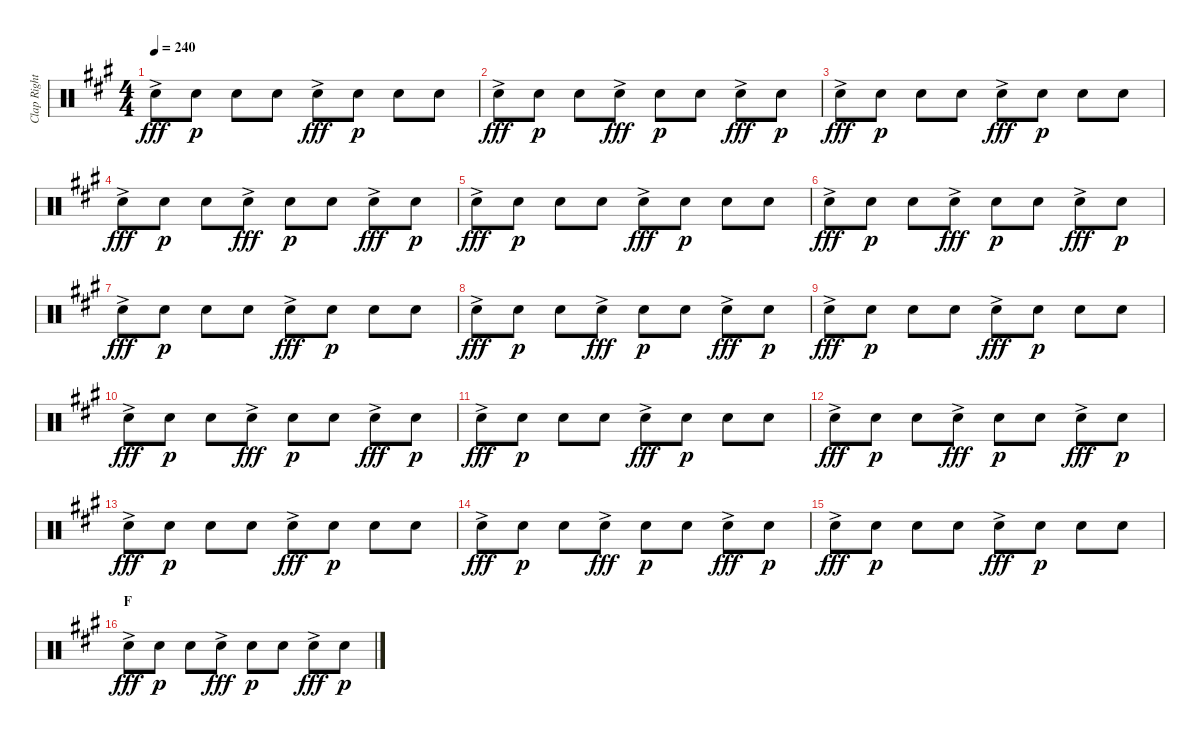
\track ("Clap Right" "Clap Right") {instrument percussion}
\staff {score}
\articulation defaults
\ts (4 4)
\tempo 240
\clef neutral
\ks a "Hand Clap (hit)"{ac}.8{dy fff} "Hand Clap (hit)".8{dy p} "Hand Clap (hit)".8 "Hand Clap (hit)".8 "Hand Clap (hit)"{ac}.8{dy fff} "Hand Clap (hit)".8{dy p} "Hand Clap (hit)".8 "Hand Clap (hit)".8
|
"Hand Clap (hit)"{ac}.8{dy fff} "Hand Clap (hit)".8{dy p} "Hand Clap (hit)".8 "Hand Clap (hit)"{ac}.8{dy fff} "Hand Clap (hit)".8{dy p} "Hand Clap (hit)".8 "Hand Clap (hit)"{ac}.8{dy fff} "Hand Clap (hit)".8{dy p} |
"Hand Clap (hit)"{ac}.8{dy fff} "Hand Clap (hit)".8{dy p} "Hand Clap (hit)".8 "Hand Clap (hit)".8 "Hand Clap (hit)"{ac}.8{dy fff} "Hand Clap (hit)".8{dy p} "Hand Clap (hit)".8 "Hand Clap (hit)".8 |
"Hand Clap (hit)"{ac}.8{dy fff} "Hand Clap (hit)".8{dy p} "Hand Clap (hit)".8 "Hand Clap (hit)"{ac}.8{dy fff} "Hand Clap (hit)".8{dy p} "Hand Clap (hit)".8 "Hand Clap (hit)"{ac}.8{dy fff} "Hand Clap (hit)".8{dy p} |
"Hand Clap (hit)"{ac}.8{dy fff} "Hand Clap (hit)".8{dy p} "Hand Clap (hit)".8 "Hand Clap (hit)".8 "Hand Clap (hit)"{ac}.8{dy fff} "Hand Clap (hit)".8{dy p} "Hand Clap (hit)".8 "Hand Clap (hit)".8 |
"Hand Clap (hit)"{ac}.8{dy fff} "Hand Clap (hit)".8{dy p} "Hand Clap (hit)".8 "Hand Clap (hit)"{ac}.8{dy fff} "Hand Clap (hit)".8{dy p} "Hand Clap (hit)".8 "Hand Clap (hit)"{ac}.8{dy fff} "Hand Clap (hit)".8{dy p} |
"Hand Clap (hit)"{ac}.8{dy fff} "Hand Clap (hit)".8{dy p} "Hand Clap (hit)".8 "Hand Clap (hit)".8 "Hand Clap (hit)"{ac}.8{dy fff} "Hand Clap (hit)".8{dy p} "Hand Clap (hit)".8 "Hand Clap (hit)".8 |
"Hand Clap (hit)"{ac}.8{dy fff} "Hand Clap (hit)".8{dy p} "Hand Clap (hit)".8 "Hand Clap (hit)"{ac}.8{dy fff} "Hand Clap (hit)".8{dy p} "Hand Clap (hit)".8 "Hand Clap (hit)"{ac}.8{dy fff} "Hand Clap (hit)".8{dy p} |
"Hand Clap (hit)"{ac}.8{dy fff} "Hand Clap (hit)".8{dy p} "Hand Clap (hit)".8 "Hand Clap (hit)".8 "Hand Clap (hit)"{ac}.8{dy fff} "Hand Clap (hit)".8{dy p} "Hand Clap (hit)".8 "Hand Clap (hit)".8 |
"Hand Clap (hit)"{ac}.8{dy fff} "Hand Clap (hit)".8{dy p} "Hand Clap (hit)".8 "Hand Clap (hit)"{ac}.8{dy fff} "Hand Clap (hit)".8{dy p} "Hand Clap (hit)".8 "Hand Clap (hit)"{ac}.8{dy fff} "Hand Clap (hit)".8{dy p} |
"Hand Clap (hit)"{ac}.8{dy fff} "Hand Clap (hit)".8{dy p} "Hand Clap (hit)".8 "Hand Clap (hit)".8 "Hand Clap (hit)"{ac}.8{dy fff} "Hand Clap (hit)".8{dy p} "Hand Clap (hit)".8 "Hand Clap (hit)".8 |
"Hand Clap (hit)"{ac}.8{dy fff} "Hand Clap (hit)".8{dy p} "Hand Clap (hit)".8 "Hand Clap (hit)"{ac}.8{dy fff} "Hand Clap (hit)".8{dy p} "Hand Clap (hit)".8 "Hand Clap (hit)"{ac}.8{dy fff} "Hand Clap (hit)".8{dy p} |
"Hand Clap (hit)"{ac}.8{dy fff} "Hand Clap (hit)".8{dy p} "Hand Clap (hit)".8 "Hand Clap (hit)".8 "Hand Clap (hit)"{ac}.8{dy fff} "Hand Clap (hit)".8{dy p} "Hand Clap (hit)".8 "Hand Clap (hit)".8 |
"Hand Clap (hit)"{ac}.8{dy fff} "Hand Clap (hit)".8{dy p} "Hand Clap (hit)".8 "Hand Clap (hit)"{ac}.8{dy fff} "Hand Clap (hit)".8{dy p} "Hand Clap (hit)".8 "Hand Clap (hit)"{ac}.8{dy fff} "Hand Clap (hit)".8{dy p} |
"Hand Clap (hit)"{ac}.8{dy fff} "Hand Clap (hit)".8{dy p} "Hand Clap (hit)".8 "Hand Clap (hit)".8 "Hand Clap (hit)"{ac}.8{dy fff} "Hand Clap (hit)".8{dy p} "Hand Clap (hit)".8 "Hand Clap (hit)".8 |
\section ("" "F")
"Hand Clap (hit)"{ac}.8{dy fff} "Hand Clap (hit)".8{dy p} "Hand Clap (hit)".8 "Hand Clap (hit)"{ac}.8{dy fff} "Hand Clap (hit)".8{dy p} "Hand Clap (hit)".8 "Hand Clap (hit)"{ac}.8{dy fff} "Hand Clap (hit)".8{dy p}
